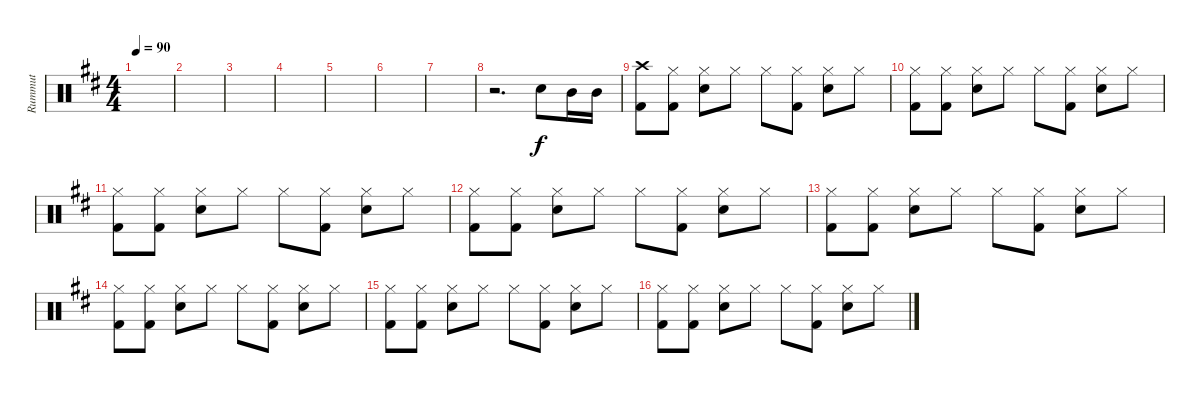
\track ("Rummut" "Rummut") {instrument percussion}
\staff {score}
\articulation defaults
\ts (4 4)
\tempo 90
\clef neutral
\ks d
|
|
|
|
|
|
|
r.2{d} "Snare (hit) 2".8 "Mid Tom (hit)".16 "Mid Tom (hit)".16 |
("Crash high (hit)" "Kick (hit) 2").8 ("Hi-Hat (closed)" "Kick (hit) 2").8 ("Hi-Hat (closed)" "Snare (hit) 2").8 "Hi-Hat (closed)".8 "Hi-Hat (closed)".8 ("Hi-Hat (closed)" "Kick (hit) 2").8 ("Hi-Hat (closed)" "Snare (hit) 2").8 "Hi-Hat (closed)".8 |
("Hi-Hat (closed)" "Kick (hit) 2").8 ("Hi-Hat (closed)" "Kick (hit) 2").8 ("Hi-Hat (closed)" "Snare (hit) 2").8 "Hi-Hat (closed)".8 "Hi-Hat (closed)".8 ("Hi-Hat (closed)" "Kick (hit) 2").8 ("Hi-Hat (closed)" "Snare (hit) 2").8 "Hi-Hat (closed)".8 |
("Hi-Hat (closed)" "Kick (hit) 2").8 ("Hi-Hat (closed)" "Kick (hit) 2").8 ("Hi-Hat (closed)" "Snare (hit) 2").8 "Hi-Hat (closed)".8 "Hi-Hat (closed)".8 ("Hi-Hat (closed)" "Kick (hit) 2").8 ("Hi-Hat (closed)" "Snare (hit) 2").8 "Hi-Hat (closed)".8 |
("Hi-Hat (closed)" "Kick (hit) 2").8 ("Hi-Hat (closed)" "Kick (hit) 2").8 ("Hi-Hat (closed)" "Snare (hit) 2").8 "Hi-Hat (closed)".8 "Hi-Hat (closed)".8 ("Hi-Hat (closed)" "Kick (hit) 2").8 ("Hi-Hat (closed)" "Snare (hit) 2").8 "Hi-Hat (closed)".8 |
("Hi-Hat (closed)" "Kick (hit) 2").8 ("Hi-Hat (closed)" "Kick (hit) 2").8 ("Hi-Hat (closed)" "Snare (hit) 2").8 "Hi-Hat (closed)".8 "Hi-Hat (closed)".8 ("Hi-Hat (closed)" "Kick (hit) 2").8 ("Hi-Hat (closed)" "Snare (hit) 2").8 "Hi-Hat (closed)".8 |
("Hi-Hat (closed)" "Kick (hit) 2").8 ("Hi-Hat (closed)" "Kick (hit) 2").8 ("Hi-Hat (closed)" "Snare (hit) 2").8 "Hi-Hat (closed)".8 "Hi-Hat (closed)".8 ("Hi-Hat (closed)" "Kick (hit) 2").8 ("Hi-Hat (closed)" "Snare (hit) 2").8 "Hi-Hat (closed)".8 |
("Hi-Hat (closed)" "Kick (hit) 2").8 ("Hi-Hat (closed)" "Kick (hit) 2").8 ("Hi-Hat (closed)" "Snare (hit) 2").8 "Hi-Hat (closed)".8 "Hi-Hat (closed)".8 ("Hi-Hat (closed)" "Kick (hit) 2").8 ("Hi-Hat (closed)" "Snare (hit) 2").8 "Hi-Hat (closed)".8 |
("Hi-Hat (closed)" "Kick (hit) 2").8 ("Hi-Hat (closed)" "Kick (hit) 2").8 ("Hi-Hat (closed)" "Snare (hit) 2").8 "Hi-Hat (closed)".8 "Hi-Hat (closed)".8 ("Hi-Hat (closed)" "Kick (hit) 2").8 ("Hi-Hat (closed)" "Snare (hit) 2").8 "Hi-Hat (closed)".8
